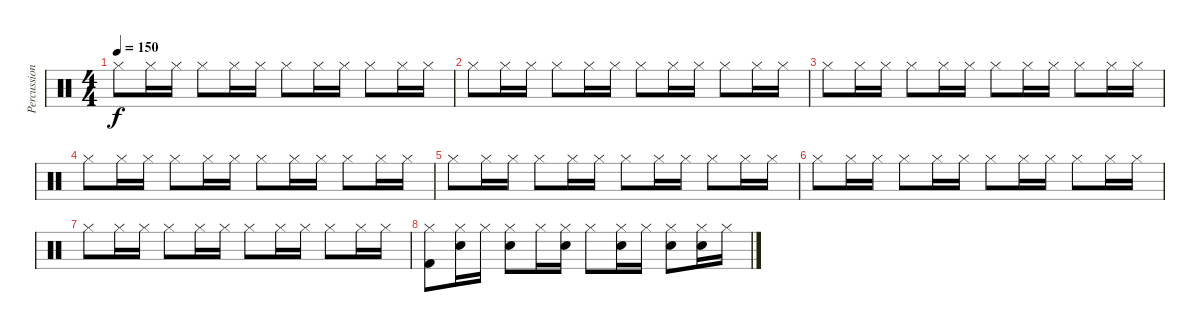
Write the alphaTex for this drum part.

\track ("Percussion" "Percussion") {instrument percussion}
\staff {score}
\articulation defaults
\ts (4 4)
\tempo 150
\clef neutral
\ks c "Hi-Hat (closed)".8{dy f} "Hi-Hat (closed)".16 "Hi-Hat (closed)".16 "Hi-Hat (closed)".8 "Hi-Hat (closed)".16 "Hi-Hat (closed)".16 "Hi-Hat (closed)".8 "Hi-Hat (closed)".16 "Hi-Hat (closed)".16 "Hi-Hat (closed)".8 "Hi-Hat (closed)".16 "Hi-Hat (closed)".16
|
"Hi-Hat (closed)".8 "Hi-Hat (closed)".16 "Hi-Hat (closed)".16 "Hi-Hat (closed)".8 "Hi-Hat (closed)".16 "Hi-Hat (closed)".16 "Hi-Hat (closed)".8 "Hi-Hat (closed)".16 "Hi-Hat (closed)".16 "Hi-Hat (closed)".8 "Hi-Hat (closed)".16 "Hi-Hat (closed)".16 |
"Hi-Hat (closed)".8 "Hi-Hat (closed)".16 "Hi-Hat (closed)".16 "Hi-Hat (closed)".8 "Hi-Hat (closed)".16 "Hi-Hat (closed)".16 "Hi-Hat (closed)".8 "Hi-Hat (closed)".16 "Hi-Hat (closed)".16 "Hi-Hat (closed)".8 "Hi-Hat (closed)".16 "Hi-Hat (closed)".16 |
"Hi-Hat (closed)".8 "Hi-Hat (closed)".16 "Hi-Hat (closed)".16 "Hi-Hat (closed)".8 "Hi-Hat (closed)".16 "Hi-Hat (closed)".16 "Hi-Hat (closed)".8 "Hi-Hat (closed)".16 "Hi-Hat (closed)".16 "Hi-Hat (closed)".8 "Hi-Hat (closed)".16 "Hi-Hat (closed)".16 |
"Hi-Hat (closed)".8 "Hi-Hat (closed)".16 "Hi-Hat (closed)".16 "Hi-Hat (closed)".8 "Hi-Hat (closed)".16 "Hi-Hat (closed)".16 "Hi-Hat (closed)".8 "Hi-Hat (closed)".16 "Hi-Hat (closed)".16 "Hi-Hat (closed)".8 "Hi-Hat (closed)".16 "Hi-Hat (closed)".16 |
"Hi-Hat (closed)".8 "Hi-Hat (closed)".16 "Hi-Hat (closed)".16 "Hi-Hat (closed)".8 "Hi-Hat (closed)".16 "Hi-Hat (closed)".16 "Hi-Hat (closed)".8 "Hi-Hat (closed)".16 "Hi-Hat (closed)".16 "Hi-Hat (closed)".8 "Hi-Hat (closed)".16 "Hi-Hat (closed)".16 |
"Hi-Hat (closed)".8 "Hi-Hat (closed)".16 "Hi-Hat (closed)".16 "Hi-Hat (closed)".8 "Hi-Hat (closed)".16 "Hi-Hat (closed)".16 "Hi-Hat (closed)".8 "Hi-Hat (closed)".16 "Hi-Hat (closed)".16 "Hi-Hat (closed)".8 "Hi-Hat (closed)".16 "Hi-Hat (closed)".16 |
("Hi-Hat (closed)" "Kick (hit) 2").8 ("Hi-Hat (closed)" "Electric Snare (hit)").16 "Hi-Hat (closed)".16 ("Hi-Hat (closed)" "Electric Snare (hit)").8 "Hi-Hat (closed)".16 ("Hi-Hat (closed)" "Electric Snare (hit)").16 "Hi-Hat (closed)".8 ("Hi-Hat (closed)" "Electric Snare (hit)").16 "Hi-Hat (closed)".16 ("Hi-Hat (closed)" "Electric Snare (hit)").8 ("Hi-Hat (closed)" "Electric Snare (hit)").16 "Hi-Hat (closed)".16
